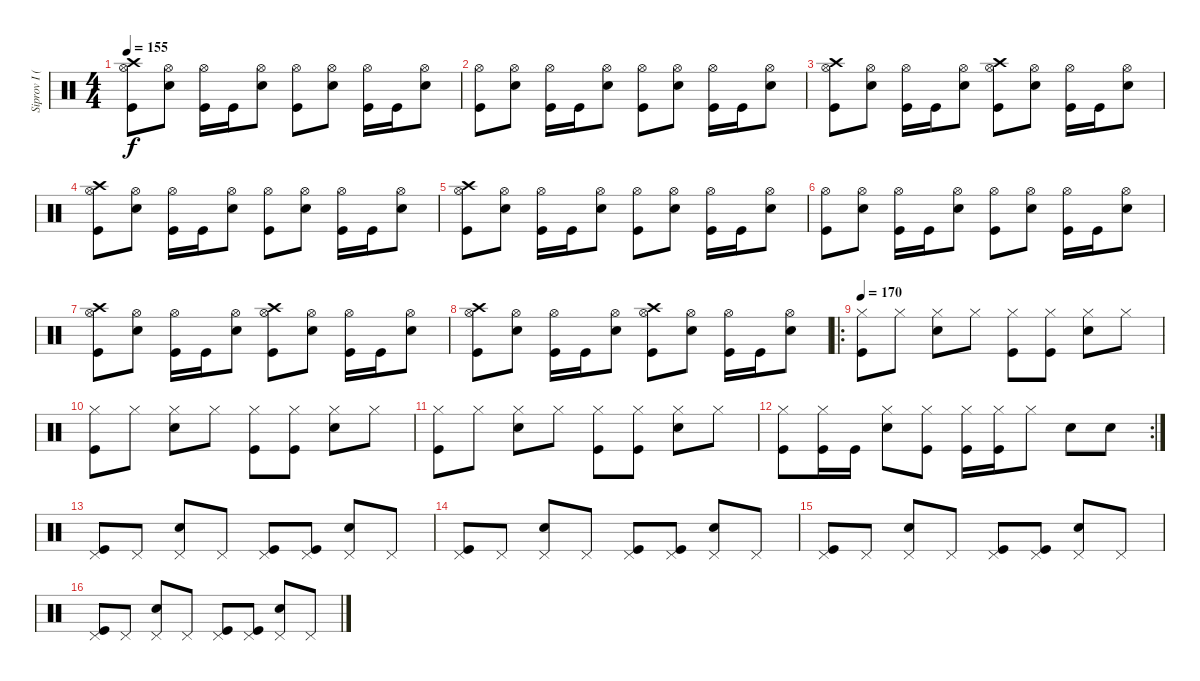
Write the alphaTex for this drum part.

\track ("Siprov I (DRUMS)" "Siprov I (") {instrument percussion}
\staff {score}
\articulation defaults
\ts (4 4)
\tempo 155
\clef neutral
\ks c
("Hi-Hat (open)" "Crash high (hit)" "Kick (hit)").8{dy f} ("Hi-Hat (open)" "Electric Snare (hit)").8 ("Hi-Hat (open)" "Kick (hit)").16 "Kick (hit)".16 ("Hi-Hat (open)" "Electric Snare (hit)").8 ("Hi-Hat (open)" "Kick (hit)").8 ("Hi-Hat (open)" "Electric Snare (hit)").8 ("Hi-Hat (open)" "Kick (hit)").16 "Kick (hit)".16 ("Hi-Hat (open)" "Electric Snare (hit)").8 |
("Hi-Hat (open)" "Kick (hit)").8 ("Hi-Hat (open)" "Electric Snare (hit)").8 ("Hi-Hat (open)" "Kick (hit)").16 "Kick (hit)".16 ("Hi-Hat (open)" "Electric Snare (hit)").8 ("Hi-Hat (open)" "Kick (hit)").8 ("Hi-Hat (open)" "Electric Snare (hit)").8 ("Hi-Hat (open)" "Kick (hit)").16 "Kick (hit)".16 ("Hi-Hat (open)" "Electric Snare (hit)").8 |
("Hi-Hat (open)" "Crash high (hit)" "Kick (hit)").8 ("Hi-Hat (open)" "Electric Snare (hit)").8 ("Hi-Hat (open)" "Kick (hit)").16 "Kick (hit)".16 ("Hi-Hat (open)" "Electric Snare (hit)").8 ("Hi-Hat (open)" "Crash high (hit)" "Kick (hit)").8 ("Hi-Hat (open)" "Electric Snare (hit)").8 ("Hi-Hat (open)" "Kick (hit)").16 "Kick (hit)".16 ("Hi-Hat (open)" "Electric Snare (hit)").8 |
("Hi-Hat (open)" "Crash high (hit)" "Kick (hit)").8 ("Hi-Hat (open)" "Electric Snare (hit)").8 ("Hi-Hat (open)" "Kick (hit)").16 "Kick (hit)".16 ("Hi-Hat (open)" "Electric Snare (hit)").8 ("Hi-Hat (open)" "Kick (hit)").8 ("Hi-Hat (open)" "Electric Snare (hit)").8 ("Hi-Hat (open)" "Kick (hit)").16 "Kick (hit)".16 ("Hi-Hat (open)" "Electric Snare (hit)").8 |
("Hi-Hat (open)" "Crash high (hit)" "Kick (hit)").8 ("Hi-Hat (open)" "Electric Snare (hit)").8 ("Hi-Hat (open)" "Kick (hit)").16 "Kick (hit)".16 ("Hi-Hat (open)" "Electric Snare (hit)").8 ("Hi-Hat (open)" "Kick (hit)").8 ("Hi-Hat (open)" "Electric Snare (hit)").8 ("Hi-Hat (open)" "Kick (hit)").16 "Kick (hit)".16 ("Hi-Hat (open)" "Electric Snare (hit)").8 |
("Hi-Hat (open)" "Kick (hit)").8 ("Hi-Hat (open)" "Electric Snare (hit)").8 ("Hi-Hat (open)" "Kick (hit)").16 "Kick (hit)".16 ("Hi-Hat (open)" "Electric Snare (hit)").8 ("Hi-Hat (open)" "Kick (hit)").8 ("Hi-Hat (open)" "Electric Snare (hit)").8 ("Hi-Hat (open)" "Kick (hit)").16 "Kick (hit)".16 ("Hi-Hat (open)" "Electric Snare (hit)").8 |
("Hi-Hat (open)" "Crash high (hit)" "Kick (hit)").8 ("Hi-Hat (open)" "Electric Snare (hit)").8 ("Hi-Hat (open)" "Kick (hit)").16 "Kick (hit)".16 ("Hi-Hat (open)" "Electric Snare (hit)").8 ("Hi-Hat (open)" "Crash high (hit)" "Kick (hit)").8 ("Hi-Hat (open)" "Electric Snare (hit)").8 ("Hi-Hat (open)" "Kick (hit)").16 "Kick (hit)".16 ("Hi-Hat (open)" "Electric Snare (hit)").8 |
("Hi-Hat (open)" "Crash high (hit)" "Kick (hit)").8 ("Hi-Hat (open)" "Electric Snare (hit)").8 ("Hi-Hat (open)" "Kick (hit)").16 "Kick (hit)".16 ("Hi-Hat (open)" "Electric Snare (hit)").8 ("Hi-Hat (open)" "Crash high (hit)" "Kick (hit)").8 ("Hi-Hat (open)" "Electric Snare (hit)").8 ("Hi-Hat (open)" "Kick (hit)").16 "Kick (hit)".16 ("Hi-Hat (open)" "Electric Snare (hit)").8 |
\ro
\tempo 170
("Hi-Hat (closed)" "Kick (hit)").8 "Hi-Hat (closed)".8 ("Hi-Hat (closed)" "Electric Snare (hit)").8 "Hi-Hat (closed)".8 ("Hi-Hat (closed)" "Kick (hit)").8 ("Hi-Hat (closed)" "Kick (hit)").8 ("Hi-Hat (closed)" "Electric Snare (hit)").8 "Hi-Hat (closed)".8 |
("Hi-Hat (closed)" "Kick (hit)").8 "Hi-Hat (closed)".8 ("Hi-Hat (closed)" "Electric Snare (hit)").8 "Hi-Hat (closed)".8 ("Hi-Hat (closed)" "Kick (hit)").8 ("Hi-Hat (closed)" "Kick (hit)").8 ("Hi-Hat (closed)" "Electric Snare (hit)").8 "Hi-Hat (closed)".8 |
("Hi-Hat (closed)" "Kick (hit)").8 "Hi-Hat (closed)".8 ("Hi-Hat (closed)" "Electric Snare (hit)").8 "Hi-Hat (closed)".8 ("Hi-Hat (closed)" "Kick (hit)").8 ("Hi-Hat (closed)" "Kick (hit)").8 ("Hi-Hat (closed)" "Electric Snare (hit)").8 "Hi-Hat (closed)".8 |
\rc 2
("Hi-Hat (closed)" "Kick (hit)").8 ("Hi-Hat (closed)" "Kick (hit)").16 "Kick (hit)".16 ("Hi-Hat (closed)" "Electric Snare (hit)").8 ("Hi-Hat (closed)" "Kick (hit)").8 ("Hi-Hat (closed)" "Kick (hit)").16 ("Hi-Hat (closed)" "Kick (hit)").16 "Hi-Hat (closed)".8 "Electric Snare (hit)".8 "Electric Snare (hit)".8 |
("Pedal Hi-Hat (hit)" "Kick (hit)").8 "Pedal Hi-Hat (hit)".8 ("Pedal Hi-Hat (hit)" "Electric Snare (hit)").8 "Pedal Hi-Hat (hit)".8 ("Pedal Hi-Hat (hit)" "Kick (hit)").8 ("Pedal Hi-Hat (hit)" "Kick (hit)").8 ("Pedal Hi-Hat (hit)" "Electric Snare (hit)").8 "Pedal Hi-Hat (hit)".8 |
("Pedal Hi-Hat (hit)" "Kick (hit)").8 "Pedal Hi-Hat (hit)".8 ("Pedal Hi-Hat (hit)" "Electric Snare (hit)").8 "Pedal Hi-Hat (hit)".8 ("Pedal Hi-Hat (hit)" "Kick (hit)").8 ("Pedal Hi-Hat (hit)" "Kick (hit)").8 ("Pedal Hi-Hat (hit)" "Electric Snare (hit)").8 "Pedal Hi-Hat (hit)".8 |
("Pedal Hi-Hat (hit)" "Kick (hit)").8 "Pedal Hi-Hat (hit)".8 ("Pedal Hi-Hat (hit)" "Electric Snare (hit)").8 "Pedal Hi-Hat (hit)".8 ("Pedal Hi-Hat (hit)" "Kick (hit)").8 ("Pedal Hi-Hat (hit)" "Kick (hit)").8 ("Pedal Hi-Hat (hit)" "Electric Snare (hit)").8 "Pedal Hi-Hat (hit)".8 |
("Pedal Hi-Hat (hit)" "Kick (hit)").8 "Pedal Hi-Hat (hit)".8 ("Pedal Hi-Hat (hit)" "Electric Snare (hit)").8 "Pedal Hi-Hat (hit)".8 ("Pedal Hi-Hat (hit)" "Kick (hit)").8 ("Pedal Hi-Hat (hit)" "Kick (hit)").8 ("Pedal Hi-Hat (hit)" "Electric Snare (hit)").8 "Pedal Hi-Hat (hit)".8
